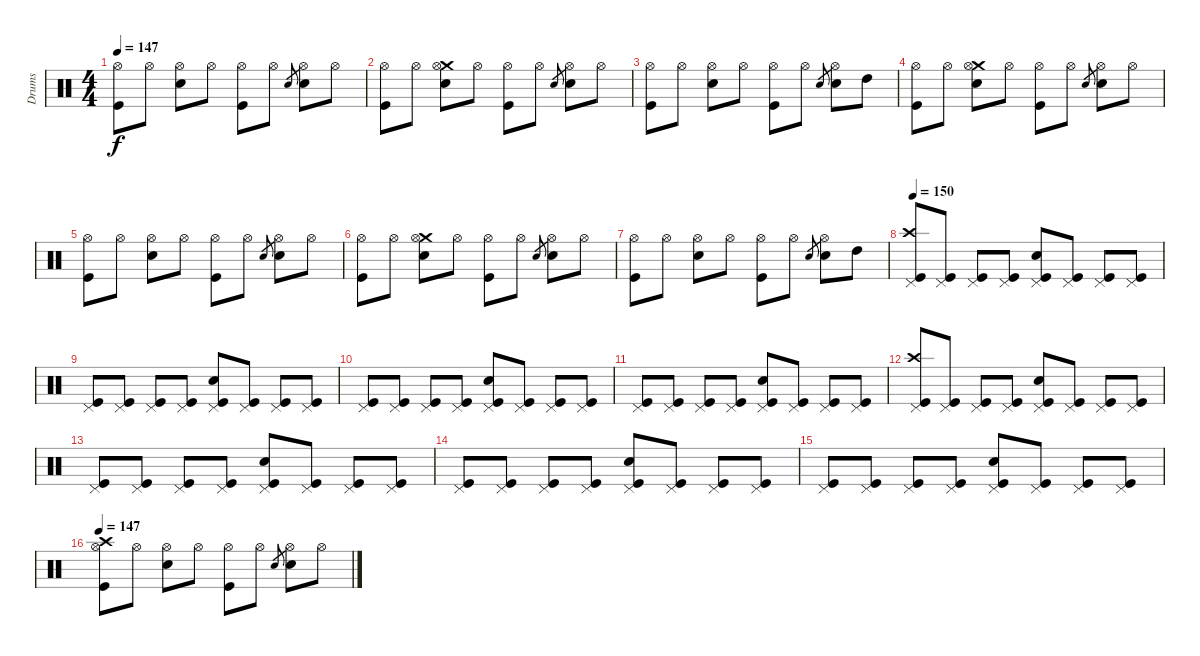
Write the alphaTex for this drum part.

\track ("Drums" "Drums") {instrument percussion}
\staff {score}
\articulation defaults
\ts (4 4)
\tempo 147
\clef neutral
\ks c
("Hi-Hat (open)" "Kick (hit)").8{dy f} "Hi-Hat (open)".8 ("Hi-Hat (open)" "Snare (hit) 2").8 "Hi-Hat (open)".8 ("Hi-Hat (open)" "Kick (hit)").8 "Hi-Hat (open)".8 "Snare (hit) 2".8{gr} ("Hi-Hat (open)" "Snare (hit) 2").8 "Hi-Hat (open)".8 |
("Hi-Hat (open)" "Kick (hit)").8 "Hi-Hat (open)".8 ("Crash medium (hit)" "Hi-Hat (open)" "Snare (hit) 2").8 "Hi-Hat (open)".8 ("Hi-Hat (open)" "Kick (hit)").8 "Hi-Hat (open)".8 "Snare (hit) 2".8{gr} ("Hi-Hat (open)" "Snare (hit) 2").8 "Hi-Hat (open)".8 |
("Hi-Hat (open)" "Kick (hit)").8 "Hi-Hat (open)".8 ("Hi-Hat (open)" "Snare (hit) 2").8 "Hi-Hat (open)".8 ("Hi-Hat (open)" "Kick (hit)").8 "Hi-Hat (open)".8 "Snare (hit) 2".8{gr} ("Hi-Hat (open)" "Snare (hit) 2").8 "High Tom (hit)".8 |
("Hi-Hat (open)" "Kick (hit)").8 "Hi-Hat (open)".8 ("Crash medium (hit)" "Hi-Hat (open)" "Snare (hit) 2").8 "Hi-Hat (open)".8 ("Hi-Hat (open)" "Kick (hit)").8 "Hi-Hat (open)".8 "Snare (hit) 2".8{gr} ("Hi-Hat (open)" "Snare (hit) 2").8 "Hi-Hat (open)".8 |
("Hi-Hat (open)" "Kick (hit)").8 "Hi-Hat (open)".8 ("Hi-Hat (open)" "Snare (hit) 2").8 "Hi-Hat (open)".8 ("Hi-Hat (open)" "Kick (hit)").8 "Hi-Hat (open)".8 "Snare (hit) 2".8{gr} ("Hi-Hat (open)" "Snare (hit) 2").8 "Hi-Hat (open)".8 |
("Hi-Hat (open)" "Kick (hit)").8 "Hi-Hat (open)".8 ("Crash medium (hit)" "Hi-Hat (open)" "Snare (hit) 2").8 "Hi-Hat (open)".8 ("Hi-Hat (open)" "Kick (hit)").8 "Hi-Hat (open)".8 "Snare (hit) 2".8{gr} ("Hi-Hat (open)" "Snare (hit) 2").8 "Hi-Hat (open)".8 |
("Hi-Hat (open)" "Kick (hit)").8 "Hi-Hat (open)".8 ("Hi-Hat (open)" "Snare (hit) 2").8 "Hi-Hat (open)".8 ("Hi-Hat (open)" "Kick (hit)").8 "Hi-Hat (open)".8 "Snare (hit) 2".8{gr} ("Hi-Hat (open)" "Snare (hit) 2").8 "High Tom (hit)".8 |
\tempo 150
("Crash high (hit)" "Pedal Hi-Hat (hit)" "Kick (hit)").8 ("Pedal Hi-Hat (hit)" "Kick (hit)").8 ("Pedal Hi-Hat (hit)" "Kick (hit)").8 ("Pedal Hi-Hat (hit)" "Kick (hit)").8 ("Pedal Hi-Hat (hit)" "Snare (hit) 2" "Kick (hit)").8 ("Pedal Hi-Hat (hit)" "Kick (hit)").8 ("Pedal Hi-Hat (hit)" "Kick (hit)").8 ("Pedal Hi-Hat (hit)" "Kick (hit)").8 |
("Pedal Hi-Hat (hit)" "Kick (hit)").8 ("Pedal Hi-Hat (hit)" "Kick (hit)").8 ("Pedal Hi-Hat (hit)" "Kick (hit)").8 ("Pedal Hi-Hat (hit)" "Kick (hit)").8 ("Pedal Hi-Hat (hit)" "Snare (hit) 2" "Kick (hit)").8 ("Pedal Hi-Hat (hit)" "Kick (hit)").8 ("Pedal Hi-Hat (hit)" "Kick (hit)").8 ("Pedal Hi-Hat (hit)" "Kick (hit)").8 |
("Pedal Hi-Hat (hit)" "Kick (hit)").8 ("Pedal Hi-Hat (hit)" "Kick (hit)").8 ("Pedal Hi-Hat (hit)" "Kick (hit)").8 ("Pedal Hi-Hat (hit)" "Kick (hit)").8 ("Pedal Hi-Hat (hit)" "Snare (hit) 2" "Kick (hit)").8 ("Pedal Hi-Hat (hit)" "Kick (hit)").8 ("Pedal Hi-Hat (hit)" "Kick (hit)").8 ("Pedal Hi-Hat (hit)" "Kick (hit)").8 |
("Pedal Hi-Hat (hit)" "Kick (hit)").8 ("Pedal Hi-Hat (hit)" "Kick (hit)").8 ("Pedal Hi-Hat (hit)" "Kick (hit)").8 ("Pedal Hi-Hat (hit)" "Kick (hit)").8 ("Pedal Hi-Hat (hit)" "Snare (hit) 2" "Kick (hit)").8 ("Pedal Hi-Hat (hit)" "Kick (hit)").8 ("Pedal Hi-Hat (hit)" "Kick (hit)").8 ("Pedal Hi-Hat (hit)" "Kick (hit)").8 |
("Crash high (hit)" "Pedal Hi-Hat (hit)" "Kick (hit)").8 ("Pedal Hi-Hat (hit)" "Kick (hit)").8 ("Pedal Hi-Hat (hit)" "Kick (hit)").8 ("Pedal Hi-Hat (hit)" "Kick (hit)").8 ("Pedal Hi-Hat (hit)" "Snare (hit) 2" "Kick (hit)").8 ("Pedal Hi-Hat (hit)" "Kick (hit)").8 ("Pedal Hi-Hat (hit)" "Kick (hit)").8 ("Pedal Hi-Hat (hit)" "Kick (hit)").8 |
("Pedal Hi-Hat (hit)" "Kick (hit)").8 ("Pedal Hi-Hat (hit)" "Kick (hit)").8 ("Pedal Hi-Hat (hit)" "Kick (hit)").8 ("Pedal Hi-Hat (hit)" "Kick (hit)").8 ("Pedal Hi-Hat (hit)" "Snare (hit) 2" "Kick (hit)").8 ("Pedal Hi-Hat (hit)" "Kick (hit)").8 ("Pedal Hi-Hat (hit)" "Kick (hit)").8 ("Pedal Hi-Hat (hit)" "Kick (hit)").8 |
("Pedal Hi-Hat (hit)" "Kick (hit)").8 ("Pedal Hi-Hat (hit)" "Kick (hit)").8 ("Pedal Hi-Hat (hit)" "Kick (hit)").8 ("Pedal Hi-Hat (hit)" "Kick (hit)").8 ("Pedal Hi-Hat (hit)" "Snare (hit) 2" "Kick (hit)").8 ("Pedal Hi-Hat (hit)" "Kick (hit)").8 ("Pedal Hi-Hat (hit)" "Kick (hit)").8 ("Pedal Hi-Hat (hit)" "Kick (hit)").8 |
("Pedal Hi-Hat (hit)" "Kick (hit)").8 ("Pedal Hi-Hat (hit)" "Kick (hit)").8 ("Pedal Hi-Hat (hit)" "Kick (hit)").8 ("Pedal Hi-Hat (hit)" "Kick (hit)").8 ("Pedal Hi-Hat (hit)" "Snare (hit) 2" "Kick (hit)").8 ("Pedal Hi-Hat (hit)" "Kick (hit)").8 ("Pedal Hi-Hat (hit)" "Kick (hit)").8 ("Pedal Hi-Hat (hit)" "Kick (hit)").8 |
\tempo 147
("Crash high (hit)" "Hi-Hat (open)" "Kick (hit)").8 "Hi-Hat (open)".8 ("Hi-Hat (open)" "Snare (hit) 2").8 "Hi-Hat (open)".8 ("Hi-Hat (open)" "Kick (hit)").8 "Hi-Hat (open)".8 "Snare (hit) 2".8{gr} ("Hi-Hat (open)" "Snare (hit) 2").8 "Hi-Hat (open)".8
